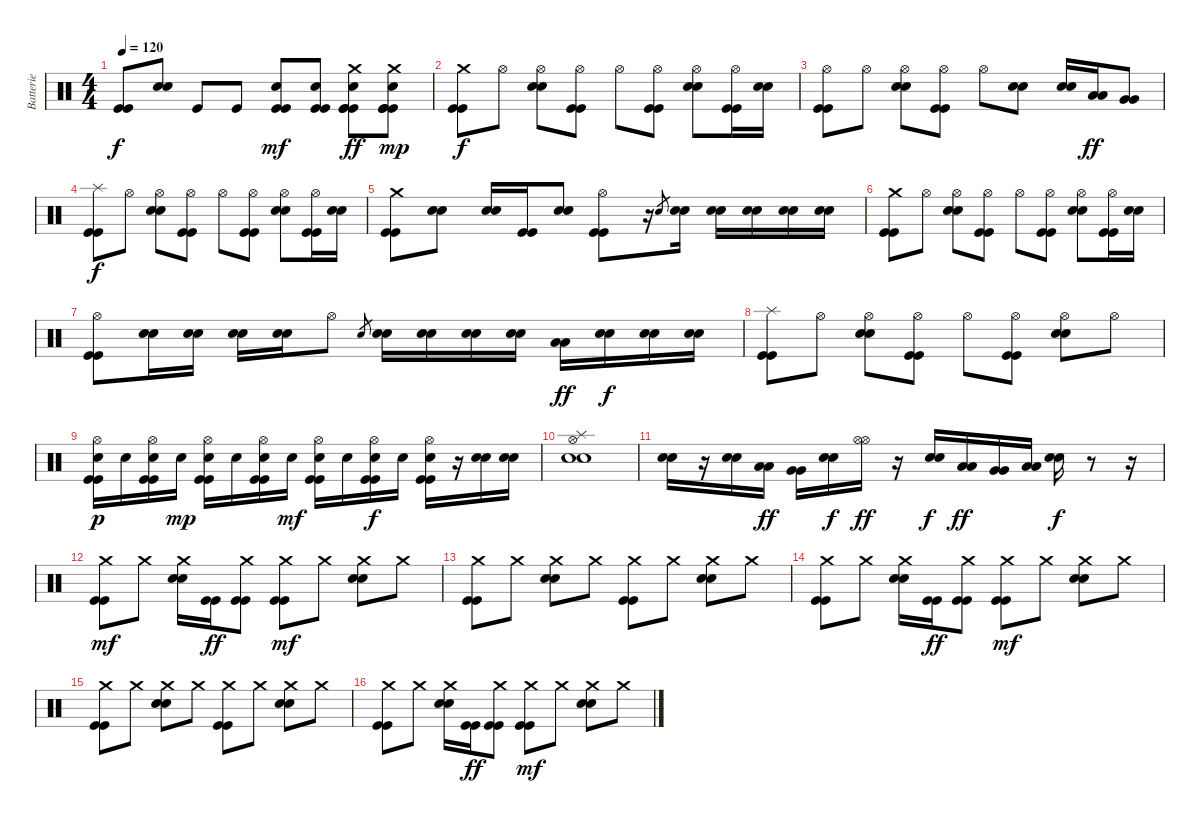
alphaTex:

\track ("Batterie" "Batterie") {instrument percussion}
\staff {score}
\articulation defaults
\ts (4 4)
\tempo 120
\clef neutral
\ks c
("Kick (hit)" "Kick (hit)").8{dy f} ("Electric Snare (hit)" "Electric Snare (hit)").8 "Kick (hit)".8 "Kick (hit)".8 ("Electric Snare (hit)" "Kick (hit)" "Kick (hit)").8{dy mf} ("Electric Snare (hit)" "Kick (hit)" "Kick (hit)").8 ("Crash medium (hit)" "Electric Snare (hit)" "Kick (hit)" "Kick (hit)" "Kick (hit)").8{dy ff} ("Crash medium (hit)" "Electric Snare (hit)" "Kick (hit)" "Kick (hit)" "Kick (hit)").8{dy mp} |
("Crash medium (hit)" "Kick (hit)" "Kick (hit)").8{dy f} "Hi-Hat (open)".8 ("Hi-Hat (open)" "Electric Snare (hit)" "Electric Snare (hit)").8 ("Hi-Hat (open)" "Kick (hit)" "Kick (hit)").8 "Hi-Hat (open)".8 ("Hi-Hat (open)" "Kick (hit)" "Kick (hit)").8 ("Hi-Hat (open)" "Electric Snare (hit)" "Electric Snare (hit)").8 ("Hi-Hat (open)" "Kick (hit)" "Kick (hit)").16 ("Electric Snare (hit)" "Electric Snare (hit)").16 |
("Hi-Hat (open)" "Kick (hit)" "Kick (hit)").8 "Hi-Hat (open)".8 ("Hi-Hat (open)" "Electric Snare (hit)" "Electric Snare (hit)").8 ("Hi-Hat (open)" "Kick (hit)" "Kick (hit)").8 "Hi-Hat (open)".8 ("Electric Snare (hit)" "Electric Snare (hit)").8 ("Electric Snare (hit)" "Electric Snare (hit)").16 ("Low Tom (hit)" "Low Tom (hit)").16{dy ff} ("Very Low Tom (hit)" "Very Low Tom (hit)").8 |
("Splash (hit)" "Kick (hit)" "Kick (hit)").8{dy f} "Hi-Hat (open)".8 ("Hi-Hat (open)" "Electric Snare (hit)" "Electric Snare (hit)").8 ("Hi-Hat (open)" "Kick (hit)" "Kick (hit)").8 "Hi-Hat (open)".8 ("Hi-Hat (open)" "Kick (hit)" "Kick (hit)").8 ("Hi-Hat (open)" "Electric Snare (hit)" "Electric Snare (hit)").8 ("Hi-Hat (open)" "Kick (hit)" "Kick (hit)").16 ("Electric Snare (hit)" "Electric Snare (hit)").16 |
("Crash medium (hit)" "Kick (hit)" "Kick (hit)").8 ("Electric Snare (hit)" "Electric Snare (hit)").8 ("Electric Snare (hit)" "Electric Snare (hit)").16 ("Kick (hit)" "Kick (hit)").16 ("Electric Snare (hit)" "Electric Snare (hit)").8 ("Hi-Hat (open)" "Kick (hit)" "Kick (hit)").8 r.16 "Electric Snare (hit)".8{gr} ("Electric Snare (hit)" "Electric Snare (hit)").16 ("Electric Snare (hit)" "Electric Snare (hit)").16 ("Electric Snare (hit)" "Electric Snare (hit)").16 ("Electric Snare (hit)" "Electric Snare (hit)").16 ("Electric Snare (hit)" "Electric Snare (hit)").16 |
("Crash medium (hit)" "Kick (hit)" "Kick (hit)").8 "Hi-Hat (open)".8 ("Hi-Hat (open)" "Electric Snare (hit)" "Electric Snare (hit)").8 ("Hi-Hat (open)" "Kick (hit)" "Kick (hit)").8 "Hi-Hat (open)".8 ("Hi-Hat (open)" "Kick (hit)" "Kick (hit)").8 ("Hi-Hat (open)" "Electric Snare (hit)" "Electric Snare (hit)").8 ("Hi-Hat (open)" "Kick (hit)" "Kick (hit)").16 ("Electric Snare (hit)" "Electric Snare (hit)").16 |
("Hi-Hat (open)" "Kick (hit)" "Kick (hit)").8 ("Electric Snare (hit)" "Electric Snare (hit)").16 ("Electric Snare (hit)" "Electric Snare (hit)").16 ("Electric Snare (hit)" "Electric Snare (hit)").16 ("Electric Snare (hit)" "Electric Snare (hit)").16 "Hi-Hat (open)".8 "Electric Snare (hit)".8{gr} ("Electric Snare (hit)" "Electric Snare (hit)").16 ("Electric Snare (hit)" "Electric Snare (hit)").16 ("Electric Snare (hit)" "Electric Snare (hit)").16 ("Electric Snare (hit)" "Electric Snare (hit)").16 ("Low Tom (hit)" "Low Floor Tom (hit)").16{dy ff} ("Electric Snare (hit)" "Electric Snare (hit)").16{dy f} ("Electric Snare (hit)" "Electric Snare (hit)").16 ("Electric Snare (hit)" "Electric Snare (hit)").16 |
("Splash (hit)" "Kick (hit)" "Kick (hit)").8 "Hi-Hat (open)".8 ("Hi-Hat (open)" "Electric Snare (hit)" "Electric Snare (hit)").8 ("Hi-Hat (open)" "Kick (hit)" "Kick (hit)").8 "Hi-Hat (open)".8 ("Hi-Hat (open)" "Kick (hit)" "Kick (hit)").8 ("Hi-Hat (open)" "Electric Snare (hit)" "Electric Snare (hit)").8 "Hi-Hat (open)".8 |
("Hi-Hat (open)" "Electric Snare (hit)" "Kick (hit)" "Kick (hit)").16{dy p} "Electric Snare (hit)".16 ("Hi-Hat (open)" "Electric Snare (hit)" "Kick (hit)" "Kick (hit)").16 "Electric Snare (hit)".16{dy mp} ("Hi-Hat (open)" "Electric Snare (hit)" "Kick (hit)" "Kick (hit)").16 "Electric Snare (hit)".16 ("Hi-Hat (open)" "Electric Snare (hit)" "Kick (hit)" "Kick (hit)").16 "Electric Snare (hit)".16{dy mf} ("Hi-Hat (open)" "Electric Snare (hit)" "Kick (hit)" "Kick (hit)").16 "Electric Snare (hit)".16 ("Hi-Hat (open)" "Electric Snare (hit)" "Kick (hit)" "Kick (hit)").16{dy f} "Electric Snare (hit)".16 ("Hi-Hat (open)" "Electric Snare (hit)" "Kick (hit)" "Kick (hit)").16 r.16 ("Electric Snare (hit)" "Electric Snare (hit)").16 ("Electric Snare (hit)" "Electric Snare (hit)").16 |
("Hi-Hat (open)" "Splash (hit)" "Electric Snare (hit)" "Electric Snare (hit)").1 |
("Electric Snare (hit)" "Electric Snare (hit)").16 r.16 ("Electric Snare (hit)" "Electric Snare (hit)").16 ("Low Tom (hit)" "Low Tom (hit)").16{dy ff} ("Very Low Tom (hit)" "Very Low Tom (hit)").16 ("Electric Snare (hit)" "Electric Snare (hit)").16{dy f} ("Hi-Hat (open)" "Hi-Hat (open)").16{dy ff} r.16 ("Electric Snare (hit)" "Electric Snare (hit)").16{dy f} ("Low Tom (hit)" "Low Tom (hit)").16{dy ff} ("Very Low Tom (hit)" "Very Low Tom (hit)").16 ("Low Floor Tom (hit)" "Low Floor Tom (hit)").16 ("Electric Snare (hit)" "Electric Snare (hit)").16{dy f} r.8 r.16 |
("Crash medium (hit)" "Kick (hit)" "Kick (hit)").8{dy mf} "Crash medium (hit)".8 ("Crash medium (hit)" "Electric Snare (hit)" "Electric Snare (hit)").16 ("Kick (hit)" "Kick (hit)").16{dy ff} ("Crash medium (hit)" "Kick (hit)" "Kick (hit)").8 ("Crash medium (hit)" "Kick (hit)" "Kick (hit)").8{dy mf} "Crash medium (hit)".8 ("Crash medium (hit)" "Electric Snare (hit)" "Electric Snare (hit)").8 "Crash medium (hit)".8 |
("Crash medium (hit)" "Kick (hit)" "Kick (hit)").8 "Crash medium (hit)".8 ("Crash medium (hit)" "Electric Snare (hit)" "Electric Snare (hit)").8 "Crash medium (hit)".8 ("Crash medium (hit)" "Kick (hit)" "Kick (hit)").8 "Crash medium (hit)".8 ("Crash medium (hit)" "Electric Snare (hit)" "Electric Snare (hit)").8 "Crash medium (hit)".8 |
("Crash medium (hit)" "Kick (hit)" "Kick (hit)").8 "Crash medium (hit)".8 ("Crash medium (hit)" "Electric Snare (hit)" "Electric Snare (hit)").16 ("Kick (hit)" "Kick (hit)").16{dy ff} ("Crash medium (hit)" "Kick (hit)" "Kick (hit)").8 ("Crash medium (hit)" "Kick (hit)" "Kick (hit)").8{dy mf} "Crash medium (hit)".8 ("Crash medium (hit)" "Electric Snare (hit)" "Electric Snare (hit)").8 "Crash medium (hit)".8 |
("Crash medium (hit)" "Kick (hit)" "Kick (hit)").8 "Crash medium (hit)".8 ("Crash medium (hit)" "Electric Snare (hit)" "Electric Snare (hit)").8 "Crash medium (hit)".8 ("Crash medium (hit)" "Kick (hit)" "Kick (hit)").8 "Crash medium (hit)".8 ("Crash medium (hit)" "Electric Snare (hit)" "Electric Snare (hit)").8 "Crash medium (hit)".8 |
("Crash medium (hit)" "Kick (hit)" "Kick (hit)").8 "Crash medium (hit)".8 ("Crash medium (hit)" "Electric Snare (hit)" "Electric Snare (hit)").16 ("Kick (hit)" "Kick (hit)").16{dy ff} ("Crash medium (hit)" "Kick (hit)" "Kick (hit)").8 ("Crash medium (hit)" "Kick (hit)" "Kick (hit)").8{dy mf} "Crash medium (hit)".8 ("Crash medium (hit)" "Electric Snare (hit)" "Electric Snare (hit)").8 "Crash medium (hit)".8
